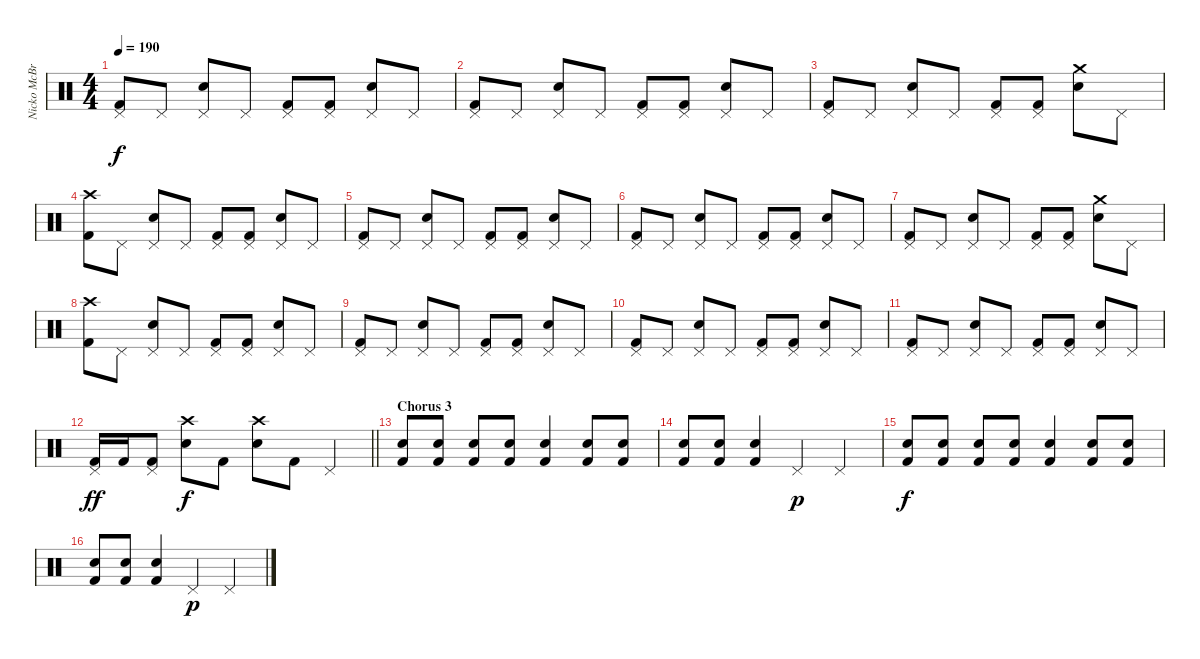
\track ("Nicko McBrain" "Nicko McBr") {instrument percussion}
\staff {score}
\articulation defaults
\ts (4 4)
\tempo 190
\clef neutral
\ks c
("Pedal Hi-Hat (hit)" "Kick (hit) 2").8{dy f} "Pedal Hi-Hat (hit)".8 ("Pedal Hi-Hat (hit)" "Electric Snare (hit)").8 "Pedal Hi-Hat (hit)".8 ("Pedal Hi-Hat (hit)" "Kick (hit) 2").8 ("Pedal Hi-Hat (hit)" "Kick (hit) 2").8 ("Pedal Hi-Hat (hit)" "Electric Snare (hit)").8 "Pedal Hi-Hat (hit)".8 |
("Pedal Hi-Hat (hit)" "Kick (hit) 2").8 "Pedal Hi-Hat (hit)".8 ("Pedal Hi-Hat (hit)" "Electric Snare (hit)").8 "Pedal Hi-Hat (hit)".8 ("Pedal Hi-Hat (hit)" "Kick (hit) 2").8 ("Pedal Hi-Hat (hit)" "Kick (hit) 2").8 ("Pedal Hi-Hat (hit)" "Electric Snare (hit)").8 "Pedal Hi-Hat (hit)".8 |
("Pedal Hi-Hat (hit)" "Kick (hit) 2").8 "Pedal Hi-Hat (hit)".8 ("Pedal Hi-Hat (hit)" "Electric Snare (hit)").8 "Pedal Hi-Hat (hit)".8 ("Pedal Hi-Hat (hit)" "Kick (hit) 2").8 ("Pedal Hi-Hat (hit)" "Kick (hit) 2").8 ("Crash medium (hit)" "Electric Snare (hit)").8 "Pedal Hi-Hat (hit)".8 |
("Crash high (hit)" "Kick (hit) 2").8 "Pedal Hi-Hat (hit)".8 ("Pedal Hi-Hat (hit)" "Electric Snare (hit)").8 "Pedal Hi-Hat (hit)".8 ("Pedal Hi-Hat (hit)" "Kick (hit) 2").8 ("Pedal Hi-Hat (hit)" "Kick (hit) 2").8 ("Pedal Hi-Hat (hit)" "Electric Snare (hit)").8 "Pedal Hi-Hat (hit)".8 |
("Pedal Hi-Hat (hit)" "Kick (hit) 2").8 "Pedal Hi-Hat (hit)".8 ("Pedal Hi-Hat (hit)" "Electric Snare (hit)").8 "Pedal Hi-Hat (hit)".8 ("Pedal Hi-Hat (hit)" "Kick (hit) 2").8 ("Pedal Hi-Hat (hit)" "Kick (hit) 2").8 ("Pedal Hi-Hat (hit)" "Electric Snare (hit)").8 "Pedal Hi-Hat (hit)".8 |
("Pedal Hi-Hat (hit)" "Kick (hit) 2").8 "Pedal Hi-Hat (hit)".8 ("Pedal Hi-Hat (hit)" "Electric Snare (hit)").8 "Pedal Hi-Hat (hit)".8 ("Pedal Hi-Hat (hit)" "Kick (hit) 2").8 ("Pedal Hi-Hat (hit)" "Kick (hit) 2").8 ("Pedal Hi-Hat (hit)" "Electric Snare (hit)").8 "Pedal Hi-Hat (hit)".8 |
("Pedal Hi-Hat (hit)" "Kick (hit) 2").8 "Pedal Hi-Hat (hit)".8 ("Pedal Hi-Hat (hit)" "Electric Snare (hit)").8 "Pedal Hi-Hat (hit)".8 ("Pedal Hi-Hat (hit)" "Kick (hit) 2").8 ("Pedal Hi-Hat (hit)" "Kick (hit) 2").8 ("Crash medium (hit)" "Electric Snare (hit)").8 "Pedal Hi-Hat (hit)".8 |
("Crash high (hit)" "Kick (hit) 2").8 "Pedal Hi-Hat (hit)".8 ("Pedal Hi-Hat (hit)" "Electric Snare (hit)").8 "Pedal Hi-Hat (hit)".8 ("Pedal Hi-Hat (hit)" "Kick (hit) 2").8 ("Pedal Hi-Hat (hit)" "Kick (hit) 2").8 ("Pedal Hi-Hat (hit)" "Electric Snare (hit)").8 "Pedal Hi-Hat (hit)".8 |
("Pedal Hi-Hat (hit)" "Kick (hit) 2").8 "Pedal Hi-Hat (hit)".8 ("Pedal Hi-Hat (hit)" "Electric Snare (hit)").8 "Pedal Hi-Hat (hit)".8 ("Pedal Hi-Hat (hit)" "Kick (hit) 2").8 ("Pedal Hi-Hat (hit)" "Kick (hit) 2").8 ("Pedal Hi-Hat (hit)" "Electric Snare (hit)").8 "Pedal Hi-Hat (hit)".8 |
("Pedal Hi-Hat (hit)" "Kick (hit) 2").8 "Pedal Hi-Hat (hit)".8 ("Pedal Hi-Hat (hit)" "Electric Snare (hit)").8 "Pedal Hi-Hat (hit)".8 ("Pedal Hi-Hat (hit)" "Kick (hit) 2").8 ("Pedal Hi-Hat (hit)" "Kick (hit) 2").8 ("Pedal Hi-Hat (hit)" "Electric Snare (hit)").8 "Pedal Hi-Hat (hit)".8 |
("Pedal Hi-Hat (hit)" "Kick (hit) 2").8 "Pedal Hi-Hat (hit)".8 ("Pedal Hi-Hat (hit)" "Electric Snare (hit)").8 "Pedal Hi-Hat (hit)".8 ("Pedal Hi-Hat (hit)" "Kick (hit) 2").8 ("Pedal Hi-Hat (hit)" "Kick (hit) 2").8 ("Pedal Hi-Hat (hit)" "Electric Snare (hit)").8 "Pedal Hi-Hat (hit)".8 |
\barLineRight lightlight
("Pedal Hi-Hat (hit)" "Kick (hit) 2").16{dy ff} "Kick (hit) 2".16 ("Pedal Hi-Hat (hit)" "Kick (hit) 2").8 ("Crash high (hit)" "Electric Snare (hit)").8{dy f} "Kick (hit) 2".8 ("Crash high (hit)" "Electric Snare (hit)").8 "Kick (hit) 2".8 "Pedal Hi-Hat (hit)".4 |
\section ("" "Chorus 3")
("Electric Snare (hit)" "Kick (hit) 2").8 ("Electric Snare (hit)" "Kick (hit) 2").8 ("Electric Snare (hit)" "Kick (hit) 2").8 ("Electric Snare (hit)" "Kick (hit) 2").8 ("Electric Snare (hit)" "Kick (hit) 2").4 ("Electric Snare (hit)" "Kick (hit) 2").8 ("Electric Snare (hit)" "Kick (hit) 2").8 |
("Electric Snare (hit)" "Kick (hit) 2").8 ("Electric Snare (hit)" "Kick (hit) 2").8 ("Electric Snare (hit)" "Kick (hit) 2").4 "Pedal Hi-Hat (hit)".4{dy p} "Pedal Hi-Hat (hit)".4 |
("Electric Snare (hit)" "Kick (hit) 2").8{dy f} ("Electric Snare (hit)" "Kick (hit) 2").8 ("Electric Snare (hit)" "Kick (hit) 2").8 ("Electric Snare (hit)" "Kick (hit) 2").8 ("Electric Snare (hit)" "Kick (hit) 2").4 ("Electric Snare (hit)" "Kick (hit) 2").8 ("Electric Snare (hit)" "Kick (hit) 2").8 |
("Electric Snare (hit)" "Kick (hit) 2").8 ("Electric Snare (hit)" "Kick (hit) 2").8 ("Electric Snare (hit)" "Kick (hit) 2").4 "Pedal Hi-Hat (hit)".4{dy p} "Pedal Hi-Hat (hit)".4
